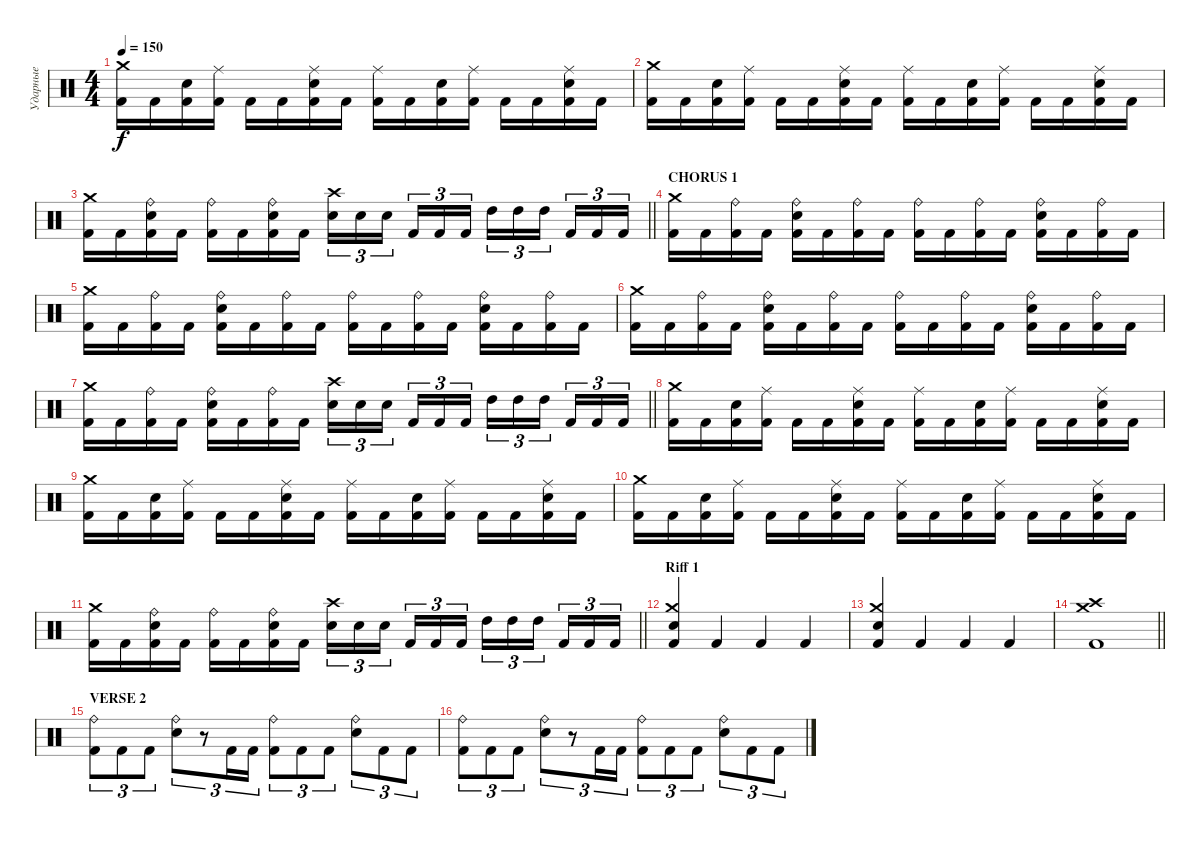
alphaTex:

\track ("Ударные" "Ударные") {instrument percussion}
\staff {score}
\articulation defaults
\ts (4 4)
\tempo 150
\clef neutral
\ks c
("Kick (hit) 2" "Crash medium (hit)").16{dy f} "Kick (hit) 2".16 ("Kick (hit) 2" "Snare (hit) 2").16 ("Kick (hit) 2" "Ride (middle)").16 "Kick (hit) 2".16 "Kick (hit) 2".16 ("Kick (hit) 2" "Snare (hit) 2" "Ride (middle)").16 "Kick (hit) 2".16 ("Kick (hit) 2" "Ride (middle)").16 "Kick (hit) 2".16 ("Kick (hit) 2" "Snare (hit) 2").16 ("Kick (hit) 2" "Ride (middle)").16 "Kick (hit) 2".16 "Kick (hit) 2".16 ("Kick (hit) 2" "Snare (hit) 2" "Ride (middle)").16 "Kick (hit) 2".16 |
("Kick (hit) 2" "Crash medium (hit)").16 "Kick (hit) 2".16 ("Kick (hit) 2" "Snare (hit) 2").16 ("Kick (hit) 2" "Ride (middle)").16 "Kick (hit) 2".16 "Kick (hit) 2".16 ("Kick (hit) 2" "Snare (hit) 2" "Ride (middle)").16 "Kick (hit) 2".16 ("Kick (hit) 2" "Ride (middle)").16 "Kick (hit) 2".16 ("Kick (hit) 2" "Snare (hit) 2").16 ("Kick (hit) 2" "Ride (middle)").16 "Kick (hit) 2".16 "Kick (hit) 2".16 ("Kick (hit) 2" "Snare (hit) 2" "Ride (middle)").16 "Kick (hit) 2".16 |
\barLineRight lightlight
("Kick (hit) 2" "Crash medium (hit)").16 "Kick (hit) 2".16 ("Kick (hit) 2" "Snare (hit) 2" "Ride (bell)").16 "Kick (hit) 2".16 ("Kick (hit) 2" "Ride (bell)").16 "Kick (hit) 2".16 ("Kick (hit) 2" "Snare (hit) 2" "Ride (bell)").16 "Kick (hit) 2".16 ("Snare (hit) 2" "Crash high (hit)").16{tu (3 2)} "Snare (hit) 2".16{tu (3 2)} "Snare (hit) 2".16{tu (3 2)} "Kick (hit) 2".16{tu (3 2)} "Kick (hit) 2".16{tu (3 2)} "Kick (hit) 2".16{tu (3 2)} "High Tom (hit)".16{tu (3 2)} "High Tom (hit)".16{tu (3 2)} "High Tom (hit)".16{tu (3 2)} "Kick (hit) 2".16{tu (3 2)} "Kick (hit) 2".16{tu (3 2)} "Kick (hit) 2".16{tu (3 2)} |
\section ("" "CHORUS 1")
("Kick (hit) 2" "Crash medium (hit)").16 "Kick (hit) 2".16 ("Kick (hit) 2" "Ride (bell)").16 "Kick (hit) 2".16 ("Kick (hit) 2" "Snare (hit) 2" "Ride (bell)").16 "Kick (hit) 2".16 ("Kick (hit) 2" "Ride (bell)").16 "Kick (hit) 2".16 ("Kick (hit) 2" "Ride (bell)").16 "Kick (hit) 2".16 ("Kick (hit) 2" "Ride (bell)").16 "Kick (hit) 2".16 ("Kick (hit) 2" "Snare (hit) 2" "Ride (bell)").16 "Kick (hit) 2".16 ("Kick (hit) 2" "Ride (bell)").16 "Kick (hit) 2".16 |
("Kick (hit) 2" "Crash medium (hit)").16 "Kick (hit) 2".16 ("Kick (hit) 2" "Ride (bell)").16 "Kick (hit) 2".16 ("Kick (hit) 2" "Snare (hit) 2" "Ride (bell)").16 "Kick (hit) 2".16 ("Kick (hit) 2" "Ride (bell)").16 "Kick (hit) 2".16 ("Kick (hit) 2" "Ride (bell)").16 "Kick (hit) 2".16 ("Kick (hit) 2" "Ride (bell)").16 "Kick (hit) 2".16 ("Kick (hit) 2" "Snare (hit) 2" "Ride (bell)").16 "Kick (hit) 2".16 ("Kick (hit) 2" "Ride (bell)").16 "Kick (hit) 2".16 |
("Kick (hit) 2" "Crash medium (hit)").16 "Kick (hit) 2".16 ("Kick (hit) 2" "Ride (bell)").16 "Kick (hit) 2".16 ("Kick (hit) 2" "Snare (hit) 2" "Ride (bell)").16 "Kick (hit) 2".16 ("Kick (hit) 2" "Ride (bell)").16 "Kick (hit) 2".16 ("Kick (hit) 2" "Ride (bell)").16 "Kick (hit) 2".16 ("Kick (hit) 2" "Ride (bell)").16 "Kick (hit) 2".16 ("Kick (hit) 2" "Snare (hit) 2" "Ride (bell)").16 "Kick (hit) 2".16 ("Kick (hit) 2" "Ride (bell)").16 "Kick (hit) 2".16 |
\barLineRight lightlight
("Kick (hit) 2" "Crash medium (hit)").16 "Kick (hit) 2".16 ("Kick (hit) 2" "Ride (bell)").16 "Kick (hit) 2".16 ("Kick (hit) 2" "Snare (hit) 2" "Ride (bell)").16 "Kick (hit) 2".16 ("Kick (hit) 2" "Ride (bell)").16 "Kick (hit) 2".16 ("Snare (hit) 2" "Crash high (hit)").16{tu (3 2)} "Snare (hit) 2".16{tu (3 2)} "Snare (hit) 2".16{tu (3 2)} "Kick (hit) 2".16{tu (3 2)} "Kick (hit) 2".16{tu (3 2)} "Kick (hit) 2".16{tu (3 2)} "High Tom (hit)".16{tu (3 2)} "High Tom (hit)".16{tu (3 2)} "High Tom (hit)".16{tu (3 2)} "Kick (hit) 2".16{tu (3 2)} "Kick (hit) 2".16{tu (3 2)} "Kick (hit) 2".16{tu (3 2)} |
("Kick (hit) 2" "Crash medium (hit)").16 "Kick (hit) 2".16 ("Kick (hit) 2" "Snare (hit) 2").16 ("Kick (hit) 2" "Ride (middle)").16 "Kick (hit) 2".16 "Kick (hit) 2".16 ("Kick (hit) 2" "Snare (hit) 2" "Ride (middle)").16 "Kick (hit) 2".16 ("Kick (hit) 2" "Ride (middle)").16 "Kick (hit) 2".16 ("Kick (hit) 2" "Snare (hit) 2").16 ("Kick (hit) 2" "Ride (middle)").16 "Kick (hit) 2".16 "Kick (hit) 2".16 ("Kick (hit) 2" "Snare (hit) 2" "Ride (middle)").16 "Kick (hit) 2".16 |
("Kick (hit) 2" "Crash medium (hit)").16 "Kick (hit) 2".16 ("Kick (hit) 2" "Snare (hit) 2").16 ("Kick (hit) 2" "Ride (middle)").16 "Kick (hit) 2".16 "Kick (hit) 2".16 ("Kick (hit) 2" "Snare (hit) 2" "Ride (middle)").16 "Kick (hit) 2".16 ("Kick (hit) 2" "Ride (middle)").16 "Kick (hit) 2".16 ("Kick (hit) 2" "Snare (hit) 2").16 ("Kick (hit) 2" "Ride (middle)").16 "Kick (hit) 2".16 "Kick (hit) 2".16 ("Kick (hit) 2" "Snare (hit) 2" "Ride (middle)").16 "Kick (hit) 2".16 |
("Kick (hit) 2" "Crash medium (hit)").16 "Kick (hit) 2".16 ("Kick (hit) 2" "Snare (hit) 2").16 ("Kick (hit) 2" "Ride (middle)").16 "Kick (hit) 2".16 "Kick (hit) 2".16 ("Kick (hit) 2" "Snare (hit) 2" "Ride (middle)").16 "Kick (hit) 2".16 ("Kick (hit) 2" "Ride (middle)").16 "Kick (hit) 2".16 ("Kick (hit) 2" "Snare (hit) 2").16 ("Kick (hit) 2" "Ride (middle)").16 "Kick (hit) 2".16 "Kick (hit) 2".16 ("Kick (hit) 2" "Snare (hit) 2" "Ride (middle)").16 "Kick (hit) 2".16 |
\barLineRight lightlight
("Kick (hit) 2" "Crash medium (hit)").16 "Kick (hit) 2".16 ("Kick (hit) 2" "Snare (hit) 2" "Ride (bell)").16 "Kick (hit) 2".16 ("Kick (hit) 2" "Ride (bell)").16 "Kick (hit) 2".16 ("Kick (hit) 2" "Snare (hit) 2" "Ride (bell)").16 "Kick (hit) 2".16 ("Snare (hit) 2" "Crash high (hit)").16{tu (3 2)} "Snare (hit) 2".16{tu (3 2)} "Snare (hit) 2".16{tu (3 2)} "Kick (hit) 2".16{tu (3 2)} "Kick (hit) 2".16{tu (3 2)} "Kick (hit) 2".16{tu (3 2)} "High Tom (hit)".16{tu (3 2)} "High Tom (hit)".16{tu (3 2)} "High Tom (hit)".16{tu (3 2)} "Kick (hit) 2".16{tu (3 2)} "Kick (hit) 2".16{tu (3 2)} "Kick (hit) 2".16{tu (3 2)} |
\section ("" "Riff 1")
("Kick (hit) 2" "Snare (hit) 2" "Crash medium (hit)").4 "Kick (hit) 2".4 "Kick (hit) 2".4 "Kick (hit) 2".4 |
("Kick (hit) 2" "Snare (hit) 2" "Crash medium (hit)").4 "Kick (hit) 2".4 "Kick (hit) 2".4 "Kick (hit) 2".4 |
\barLineRight lightlight
("Kick (hit) 2" "Crash high (hit)" "Crash medium (hit)").1 |
\section ("" "VERSE 2")
("Kick (hit) 2" "Ride (bell)").8{tu (3 2)} "Kick (hit) 2".8{tu (3 2)} "Kick (hit) 2".8{tu (3 2)} ("Snare (hit) 2" "Ride (bell)").8{tu (3 2)} r.8{tu (3 2)} "Kick (hit) 2".16{tu (3 2)} "Kick (hit) 2".16{tu (3 2)} ("Kick (hit) 2" "Ride (bell)").8{tu (3 2)} "Kick (hit) 2".8{tu (3 2)} "Kick (hit) 2".8{tu (3 2)} ("Snare (hit) 2" "Ride (bell)").8{tu (3 2)} "Kick (hit) 2".8{tu (3 2)} "Kick (hit) 2".8{tu (3 2)} |
("Kick (hit) 2" "Ride (bell)").8{tu (3 2)} "Kick (hit) 2".8{tu (3 2)} "Kick (hit) 2".8{tu (3 2)} ("Snare (hit) 2" "Ride (bell)").8{tu (3 2)} r.8{tu (3 2)} "Kick (hit) 2".16{tu (3 2)} "Kick (hit) 2".16{tu (3 2)} ("Kick (hit) 2" "Ride (bell)").8{tu (3 2)} "Kick (hit) 2".8{tu (3 2)} "Kick (hit) 2".8{tu (3 2)} ("Snare (hit) 2" "Ride (bell)").8{tu (3 2)} "Kick (hit) 2".8{tu (3 2)} "Kick (hit) 2".8{tu (3 2)}
